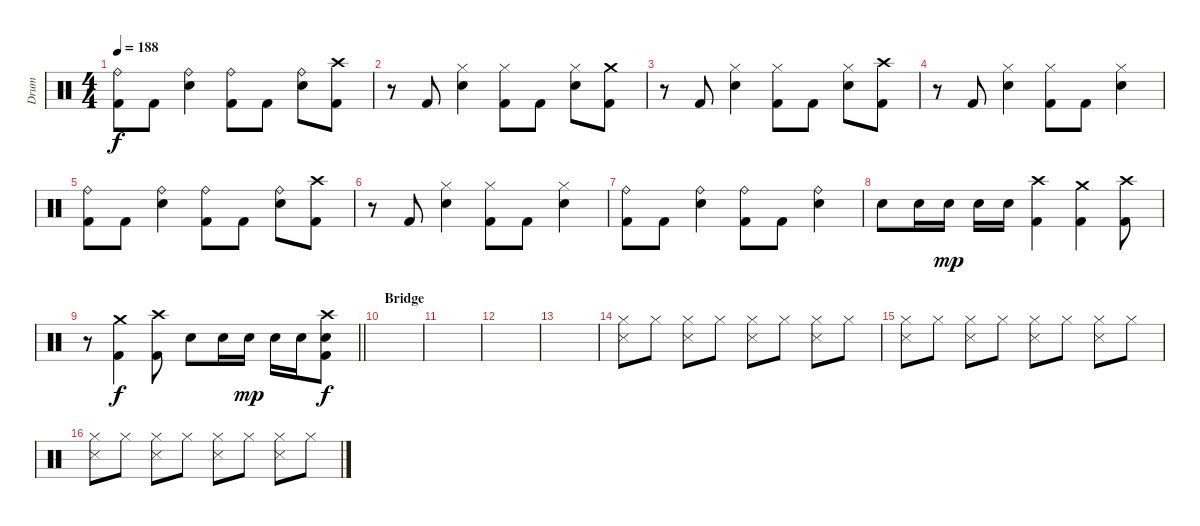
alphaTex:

\track ("Drum" "Drum") {instrument percussion}
\staff {score}
\articulation defaults
\ts (4 4)
\tempo 188
\clef neutral
\ks c
("Ride (bell)" "Kick (hit) 2").8{dy f} "Kick (hit) 2".8 ("Ride (bell)" "Snare (hit) 2").4 ("Ride (bell)" "Kick (hit) 2").8 "Kick (hit) 2".8 ("Ride (bell)" "Snare (hit) 2").8 ("Crash high (hit)" "Kick (hit) 2").8 |
r.8 "Kick (hit) 2".8 ("Hi-Hat (closed)" "Snare (hit) 2").4 ("Hi-Hat (closed)" "Kick (hit) 2").8 "Kick (hit) 2".8 ("Hi-Hat (closed)" "Snare (hit) 2").8 ("Crash medium (hit)" "Kick (hit) 2").8 |
r.8 "Kick (hit) 2".8 ("Hi-Hat (closed)" "Snare (hit) 2").4 ("Hi-Hat (closed)" "Kick (hit) 2").8 "Kick (hit) 2".8 ("Hi-Hat (closed)" "Snare (hit) 2").8 ("Crash high (hit)" "Kick (hit) 2").8 |
r.8 "Kick (hit) 2".8 ("Hi-Hat (closed)" "Snare (hit) 2").4 ("Hi-Hat (closed)" "Kick (hit) 2").8 "Kick (hit) 2".8 ("Hi-Hat (closed)" "Snare (hit) 2").4 |
("Ride (bell)" "Kick (hit) 2").8 "Kick (hit) 2".8 ("Ride (bell)" "Snare (hit) 2").4 ("Ride (bell)" "Kick (hit) 2").8 "Kick (hit) 2".8 ("Ride (bell)" "Snare (hit) 2").8 ("Crash high (hit)" "Kick (hit) 2").8 |
r.8 "Kick (hit) 2".8 ("Hi-Hat (closed)" "Snare (hit) 2").4 ("Hi-Hat (closed)" "Kick (hit) 2").8 "Kick (hit) 2".8 ("Hi-Hat (closed)" "Snare (hit) 2").4 |
("Ride (bell)" "Kick (hit) 2").8 "Kick (hit) 2".8 ("Ride (bell)" "Snare (hit) 2").4 ("Ride (bell)" "Kick (hit) 2").8 "Kick (hit) 2".8 ("Ride (bell)" "Snare (hit) 2").4 |
"Snare (hit) 2".8 "Snare (hit) 2".16 "Snare (hit) 2".16{dy mp} "Snare (hit) 2".16 "Snare (hit) 2".16 ("Crash high (hit)" "Kick (hit) 2").4 ("Crash medium (hit)" "Kick (hit) 2").4 ("Crash high (hit)" "Kick (hit) 2").8 |
\barLineRight lightlight
r.8 ("Crash medium (hit)" "Kick (hit) 2").4{dy f} ("Crash high (hit)" "Kick (hit) 2").8 "Snare (hit) 2".8 "Snare (hit) 2".16 "Snare (hit) 2".16{dy mp} "Snare (hit) 2".16 "Snare (hit) 2".16 ("Crash high (hit)" "Snare (hit) 2" "Kick (hit) 2").8{dy f} |
\section ("" "Bridge")
|
|
|
|
("Hi-Hat (closed)" "Snare (side stick) 3").8 "Hi-Hat (closed)".8 ("Hi-Hat (closed)" "Snare (side stick) 3").8 "Hi-Hat (closed)".8 ("Hi-Hat (closed)" "Snare (side stick) 3").8 "Hi-Hat (closed)".8 ("Hi-Hat (closed)" "Snare (side stick) 3").8 "Hi-Hat (closed)".8 |
("Hi-Hat (closed)" "Snare (side stick) 3").8 "Hi-Hat (closed)".8 ("Hi-Hat (closed)" "Snare (side stick) 3").8 "Hi-Hat (closed)".8 ("Hi-Hat (closed)" "Snare (side stick) 3").8 "Hi-Hat (closed)".8 ("Hi-Hat (closed)" "Snare (side stick) 3").8 "Hi-Hat (closed)".8 |
("Hi-Hat (closed)" "Snare (side stick) 3").8 "Hi-Hat (closed)".8 ("Hi-Hat (closed)" "Snare (side stick) 3").8 "Hi-Hat (closed)".8 ("Hi-Hat (closed)" "Snare (side stick) 3").8 "Hi-Hat (closed)".8 ("Hi-Hat (closed)" "Snare (side stick) 3").8 "Hi-Hat (closed)".8
